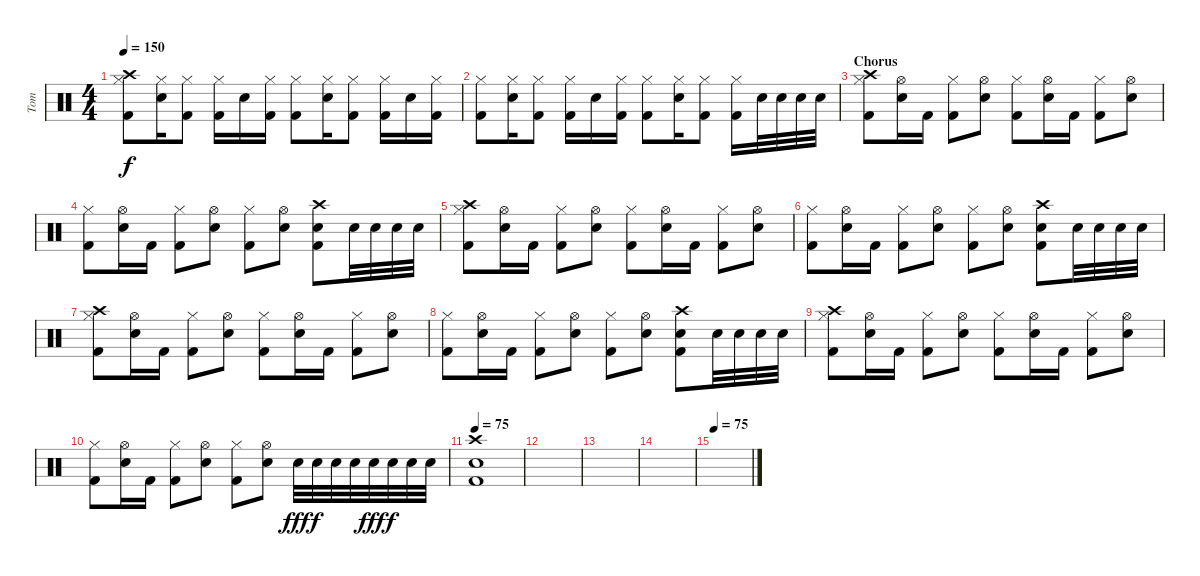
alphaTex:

\track ("Tom" "Tom") {instrument percussion}
\staff {score}
\articulation defaults
\ts (4 4)
\tempo 150
\clef neutral
\ks c
("Crash high (hit)" "Hi-Hat (closed)" "Kick (hit) 2").8{dy f} ("Hi-Hat (closed)" "Electric Snare (hit)").16 ("Hi-Hat (closed)" "Kick (hit) 2").8 ("Hi-Hat (closed)" "Kick (hit) 2").16 "Electric Snare (hit)".16 ("Hi-Hat (closed)" "Kick (hit) 2").16 ("Hi-Hat (closed)" "Kick (hit) 2").8 ("Hi-Hat (closed)" "Electric Snare (hit)").16 ("Hi-Hat (closed)" "Kick (hit) 2").8 ("Hi-Hat (closed)" "Kick (hit) 2").16 "Electric Snare (hit)".16 ("Hi-Hat (closed)" "Kick (hit) 2").16 |
("Hi-Hat (closed)" "Kick (hit) 2").8 ("Hi-Hat (closed)" "Electric Snare (hit)").16 ("Hi-Hat (closed)" "Kick (hit) 2").8 ("Hi-Hat (closed)" "Kick (hit) 2").16 "Electric Snare (hit)".16 ("Hi-Hat (closed)" "Kick (hit) 2").16 ("Hi-Hat (closed)" "Kick (hit) 2").8 ("Hi-Hat (closed)" "Electric Snare (hit)").16 ("Hi-Hat (closed)" "Kick (hit) 2").8 ("Hi-Hat (closed)" "Kick (hit) 2").16 "Electric Snare (hit)".32 "Electric Snare (hit)".32 "Electric Snare (hit)".32 "Electric Snare (hit)".32 |
\section ("" "Chorus")
("Crash high (hit)" "Hi-Hat (closed)" "Kick (hit) 2").8 ("Hi-Hat (open)" "Electric Snare (hit)").16 "Kick (hit) 2".16 ("Hi-Hat (closed)" "Kick (hit) 2").8 ("Hi-Hat (open)" "Electric Snare (hit)").8 ("Hi-Hat (closed)" "Kick (hit) 2").8 ("Hi-Hat (open)" "Electric Snare (hit)").16 "Kick (hit) 2".16 ("Hi-Hat (closed)" "Kick (hit) 2").8 ("Hi-Hat (open)" "Electric Snare (hit)").8 |
("Hi-Hat (closed)" "Kick (hit) 2").8 ("Hi-Hat (open)" "Electric Snare (hit)").16 "Kick (hit) 2".16 ("Hi-Hat (closed)" "Kick (hit) 2").8 ("Hi-Hat (open)" "Electric Snare (hit)").8 ("Hi-Hat (closed)" "Kick (hit) 2").8 ("Hi-Hat (open)" "Electric Snare (hit)").8 ("Crash high (hit)" "Electric Snare (hit)" "Kick (hit) 2").8 "Electric Snare (hit)".32 "Electric Snare (hit)".32 "Electric Snare (hit)".32 "Electric Snare (hit)".32 |
("Crash high (hit)" "Hi-Hat (closed)" "Kick (hit) 2").8 ("Hi-Hat (open)" "Electric Snare (hit)").16 "Kick (hit) 2".16 ("Hi-Hat (closed)" "Kick (hit) 2").8 ("Hi-Hat (open)" "Electric Snare (hit)").8 ("Hi-Hat (closed)" "Kick (hit) 2").8 ("Hi-Hat (open)" "Electric Snare (hit)").16 "Kick (hit) 2".16 ("Hi-Hat (closed)" "Kick (hit) 2").8 ("Hi-Hat (open)" "Electric Snare (hit)").8 |
("Hi-Hat (closed)" "Kick (hit) 2").8 ("Hi-Hat (open)" "Electric Snare (hit)").16 "Kick (hit) 2".16 ("Hi-Hat (closed)" "Kick (hit) 2").8 ("Hi-Hat (open)" "Electric Snare (hit)").8 ("Hi-Hat (closed)" "Kick (hit) 2").8 ("Hi-Hat (open)" "Electric Snare (hit)").8 ("Crash high (hit)" "Electric Snare (hit)" "Kick (hit) 2").8 "Electric Snare (hit)".32 "Electric Snare (hit)".32 "Electric Snare (hit)".32 "Electric Snare (hit)".32 |
("Crash high (hit)" "Hi-Hat (closed)" "Kick (hit) 2").8 ("Hi-Hat (open)" "Electric Snare (hit)").16 "Kick (hit) 2".16 ("Hi-Hat (closed)" "Kick (hit) 2").8 ("Hi-Hat (open)" "Electric Snare (hit)").8 ("Hi-Hat (closed)" "Kick (hit) 2").8 ("Hi-Hat (open)" "Electric Snare (hit)").16 "Kick (hit) 2".16 ("Hi-Hat (closed)" "Kick (hit) 2").8 ("Hi-Hat (open)" "Electric Snare (hit)").8 |
("Hi-Hat (closed)" "Kick (hit) 2").8 ("Hi-Hat (open)" "Electric Snare (hit)").16 "Kick (hit) 2".16 ("Hi-Hat (closed)" "Kick (hit) 2").8 ("Hi-Hat (open)" "Electric Snare (hit)").8 ("Hi-Hat (closed)" "Kick (hit) 2").8 ("Hi-Hat (open)" "Electric Snare (hit)").8 ("Crash high (hit)" "Electric Snare (hit)" "Kick (hit) 2").8 "Electric Snare (hit)".32 "Electric Snare (hit)".32 "Electric Snare (hit)".32 "Electric Snare (hit)".32 |
("Crash high (hit)" "Hi-Hat (closed)" "Kick (hit) 2").8 ("Hi-Hat (open)" "Electric Snare (hit)").16 "Kick (hit) 2".16 ("Hi-Hat (closed)" "Kick (hit) 2").8 ("Hi-Hat (open)" "Electric Snare (hit)").8 ("Hi-Hat (closed)" "Kick (hit) 2").8 ("Hi-Hat (open)" "Electric Snare (hit)").16 "Kick (hit) 2".16 ("Hi-Hat (closed)" "Kick (hit) 2").8 ("Hi-Hat (open)" "Electric Snare (hit)").8 |
("Hi-Hat (closed)" "Kick (hit) 2").8 ("Hi-Hat (open)" "Electric Snare (hit)").16 "Kick (hit) 2".16 ("Hi-Hat (closed)" "Kick (hit) 2").8 ("Hi-Hat (open)" "Electric Snare (hit)").8 ("Hi-Hat (closed)" "Kick (hit) 2").8 ("Hi-Hat (open)" "Electric Snare (hit)").8 "Electric Snare (hit)".32{dy fff} "Electric Snare (hit)".32{dy f} "Electric Snare (hit)".32 "Electric Snare (hit)".32 "Electric Snare (hit)".32{dy fff} "Electric Snare (hit)".32{dy f} "Electric Snare (hit)".32 "Electric Snare (hit)".32 |
\tempo 75
("Crash high (hit)" "Electric Snare (hit)" "Kick (hit) 2").1 |
|
|
|
\tempo 75
